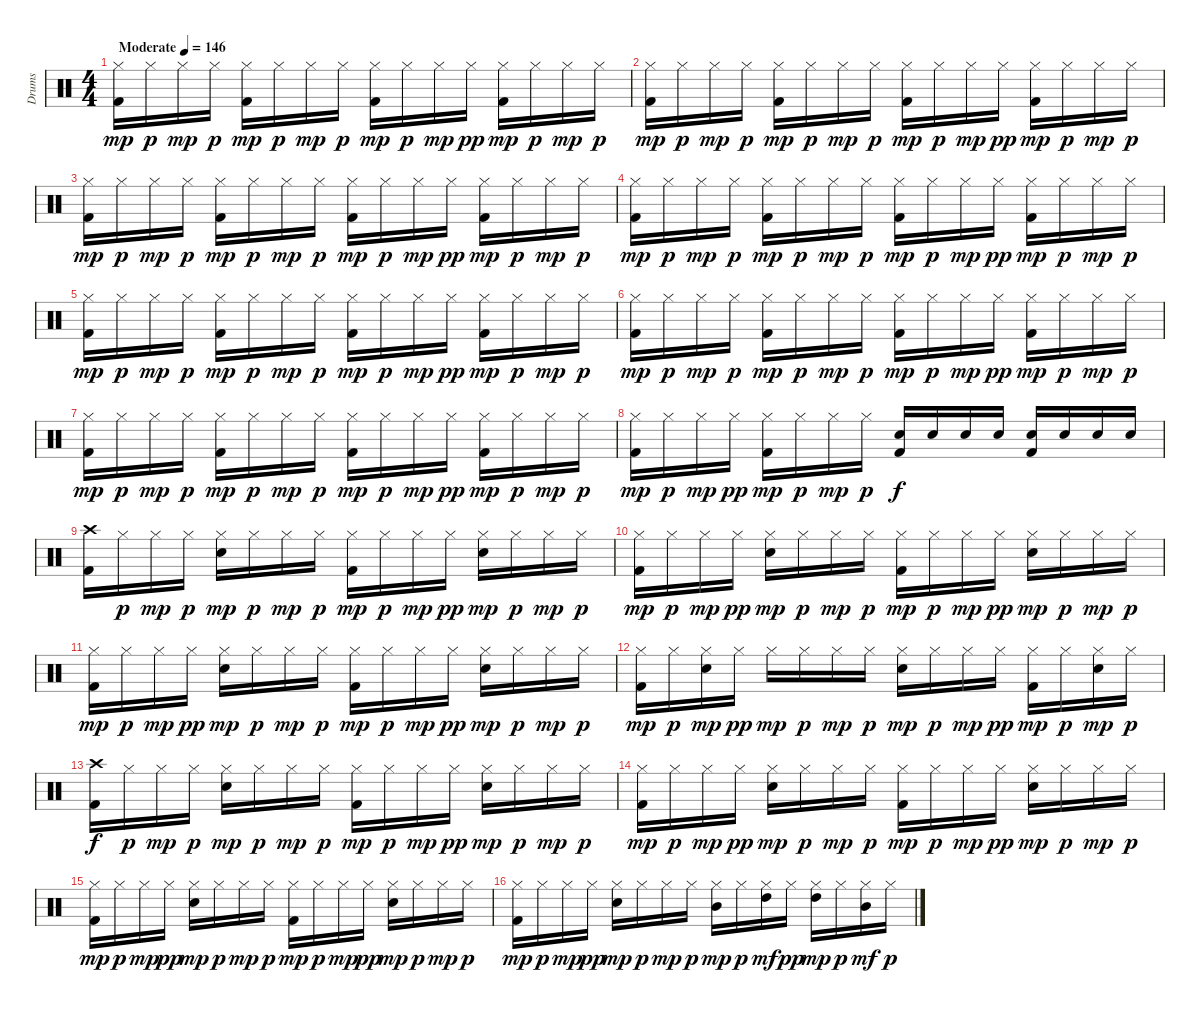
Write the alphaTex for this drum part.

\track ("Drums" "Drums") {instrument percussion}
\staff {score}
\articulation defaults
\ts (4 4)
\tempo (146 "Moderate")
\clef neutral
\ks c
("Hi-Hat (closed)" "Kick (hit) 2").16{dy mp} "Hi-Hat (closed)".16{dy p} "Hi-Hat (closed)".16{dy mp} "Hi-Hat (closed)".16{dy p} ("Hi-Hat (closed)" "Kick (hit) 2").16{dy mp} "Hi-Hat (closed)".16{dy p} "Hi-Hat (closed)".16{dy mp} "Hi-Hat (closed)".16{dy p} ("Hi-Hat (closed)" "Kick (hit) 2").16{dy mp} "Hi-Hat (closed)".16{dy p} "Hi-Hat (closed)".16{dy mp} "Hi-Hat (closed)".16{dy pp} ("Hi-Hat (closed)" "Kick (hit) 2").16{dy mp} "Hi-Hat (closed)".16{dy p} "Hi-Hat (closed)".16{dy mp} "Hi-Hat (closed)".16{dy p} |
("Hi-Hat (closed)" "Kick (hit) 2").16{dy mp} "Hi-Hat (closed)".16{dy p} "Hi-Hat (closed)".16{dy mp} "Hi-Hat (closed)".16{dy p} ("Hi-Hat (closed)" "Kick (hit) 2").16{dy mp} "Hi-Hat (closed)".16{dy p} "Hi-Hat (closed)".16{dy mp} "Hi-Hat (closed)".16{dy p} ("Hi-Hat (closed)" "Kick (hit) 2").16{dy mp} "Hi-Hat (closed)".16{dy p} "Hi-Hat (closed)".16{dy mp} "Hi-Hat (closed)".16{dy pp} ("Hi-Hat (closed)" "Kick (hit) 2").16{dy mp} "Hi-Hat (closed)".16{dy p} "Hi-Hat (closed)".16{dy mp} "Hi-Hat (closed)".16{dy p} |
("Hi-Hat (closed)" "Kick (hit) 2").16{dy mp} "Hi-Hat (closed)".16{dy p} "Hi-Hat (closed)".16{dy mp} "Hi-Hat (closed)".16{dy p} ("Hi-Hat (closed)" "Kick (hit) 2").16{dy mp} "Hi-Hat (closed)".16{dy p} "Hi-Hat (closed)".16{dy mp} "Hi-Hat (closed)".16{dy p} ("Hi-Hat (closed)" "Kick (hit) 2").16{dy mp} "Hi-Hat (closed)".16{dy p} "Hi-Hat (closed)".16{dy mp} "Hi-Hat (closed)".16{dy pp} ("Hi-Hat (closed)" "Kick (hit) 2").16{dy mp} "Hi-Hat (closed)".16{dy p} "Hi-Hat (closed)".16{dy mp} "Hi-Hat (closed)".16{dy p} |
("Hi-Hat (closed)" "Kick (hit) 2").16{dy mp} "Hi-Hat (closed)".16{dy p} "Hi-Hat (closed)".16{dy mp} "Hi-Hat (closed)".16{dy p} ("Hi-Hat (closed)" "Kick (hit) 2").16{dy mp} "Hi-Hat (closed)".16{dy p} "Hi-Hat (closed)".16{dy mp} "Hi-Hat (closed)".16{dy p} ("Hi-Hat (closed)" "Kick (hit) 2").16{dy mp} "Hi-Hat (closed)".16{dy p} "Hi-Hat (closed)".16{dy mp} "Hi-Hat (closed)".16{dy pp} ("Hi-Hat (closed)" "Kick (hit) 2").16{dy mp} "Hi-Hat (closed)".16{dy p} "Hi-Hat (closed)".16{dy mp} "Hi-Hat (closed)".16{dy p} |
("Hi-Hat (closed)" "Kick (hit) 2").16{dy mp} "Hi-Hat (closed)".16{dy p} "Hi-Hat (closed)".16{dy mp} "Hi-Hat (closed)".16{dy p} ("Hi-Hat (closed)" "Kick (hit) 2").16{dy mp} "Hi-Hat (closed)".16{dy p} "Hi-Hat (closed)".16{dy mp} "Hi-Hat (closed)".16{dy p} ("Hi-Hat (closed)" "Kick (hit) 2").16{dy mp} "Hi-Hat (closed)".16{dy p} "Hi-Hat (closed)".16{dy mp} "Hi-Hat (closed)".16{dy pp} ("Hi-Hat (closed)" "Kick (hit) 2").16{dy mp} "Hi-Hat (closed)".16{dy p} "Hi-Hat (closed)".16{dy mp} "Hi-Hat (closed)".16{dy p} |
("Hi-Hat (closed)" "Kick (hit) 2").16{dy mp} "Hi-Hat (closed)".16{dy p} "Hi-Hat (closed)".16{dy mp} "Hi-Hat (closed)".16{dy p} ("Hi-Hat (closed)" "Kick (hit) 2").16{dy mp} "Hi-Hat (closed)".16{dy p} "Hi-Hat (closed)".16{dy mp} "Hi-Hat (closed)".16{dy p} ("Hi-Hat (closed)" "Kick (hit) 2").16{dy mp} "Hi-Hat (closed)".16{dy p} "Hi-Hat (closed)".16{dy mp} "Hi-Hat (closed)".16{dy pp} ("Hi-Hat (closed)" "Kick (hit) 2").16{dy mp} "Hi-Hat (closed)".16{dy p} "Hi-Hat (closed)".16{dy mp} "Hi-Hat (closed)".16{dy p} |
("Hi-Hat (closed)" "Kick (hit) 2").16{dy mp} "Hi-Hat (closed)".16{dy p} "Hi-Hat (closed)".16{dy mp} "Hi-Hat (closed)".16{dy p} ("Hi-Hat (closed)" "Kick (hit) 2").16{dy mp} "Hi-Hat (closed)".16{dy p} "Hi-Hat (closed)".16{dy mp} "Hi-Hat (closed)".16{dy p} ("Hi-Hat (closed)" "Kick (hit) 2").16{dy mp} "Hi-Hat (closed)".16{dy p} "Hi-Hat (closed)".16{dy mp} "Hi-Hat (closed)".16{dy pp} ("Hi-Hat (closed)" "Kick (hit) 2").16{dy mp} "Hi-Hat (closed)".16{dy p} "Hi-Hat (closed)".16{dy mp} "Hi-Hat (closed)".16{dy p} |
("Hi-Hat (closed)" "Kick (hit) 2").16{dy mp} "Hi-Hat (closed)".16{dy p} "Hi-Hat (closed)".16{dy mp} "Hi-Hat (closed)".16{dy pp} ("Hi-Hat (closed)" "Kick (hit) 2").16{dy mp} "Hi-Hat (closed)".16{dy p} "Hi-Hat (closed)".16{dy mp} "Hi-Hat (closed)".16{dy p} ("Kick (hit) 2" "Electric Snare (hit)").16{dy f} "Electric Snare (hit)".16 "Electric Snare (hit)".16 "Electric Snare (hit)".16 ("Kick (hit) 2" "Electric Snare (hit)").16 "Electric Snare (hit)".16 "Electric Snare (hit)".16 "Electric Snare (hit)".16 |
("Crash high (hit)" "Kick (hit) 2").16 "Hi-Hat (closed)".16{dy p} "Hi-Hat (closed)".16{dy mp} "Hi-Hat (closed)".16{dy p} ("Hi-Hat (closed)" "Electric Snare (hit)").16{dy mp} "Hi-Hat (closed)".16{dy p} "Hi-Hat (closed)".16{dy mp} "Hi-Hat (closed)".16{dy p} ("Hi-Hat (closed)" "Kick (hit) 2").16{dy mp} "Hi-Hat (closed)".16{dy p} "Hi-Hat (closed)".16{dy mp} "Hi-Hat (closed)".16{dy pp} ("Hi-Hat (closed)" "Electric Snare (hit)").16{dy mp} "Hi-Hat (closed)".16{dy p} "Hi-Hat (closed)".16{dy mp} "Hi-Hat (closed)".16{dy p} |
("Hi-Hat (closed)" "Kick (hit) 2").16{dy mp} "Hi-Hat (closed)".16{dy p} "Hi-Hat (closed)".16{dy mp} "Hi-Hat (closed)".16{dy pp} ("Hi-Hat (closed)" "Electric Snare (hit)").16{dy mp} "Hi-Hat (closed)".16{dy p} "Hi-Hat (closed)".16{dy mp} "Hi-Hat (closed)".16{dy p} ("Hi-Hat (closed)" "Kick (hit) 2").16{dy mp} "Hi-Hat (closed)".16{dy p} "Hi-Hat (closed)".16{dy mp} "Hi-Hat (closed)".16{dy pp} ("Hi-Hat (closed)" "Electric Snare (hit)").16{dy mp} "Hi-Hat (closed)".16{dy p} "Hi-Hat (closed)".16{dy mp} "Hi-Hat (closed)".16{dy p} |
("Hi-Hat (closed)" "Kick (hit) 2").16{dy mp} "Hi-Hat (closed)".16{dy p} "Hi-Hat (closed)".16{dy mp} "Hi-Hat (closed)".16{dy pp} ("Hi-Hat (closed)" "Electric Snare (hit)").16{dy mp} "Hi-Hat (closed)".16{dy p} "Hi-Hat (closed)".16{dy mp} "Hi-Hat (closed)".16{dy p} ("Hi-Hat (closed)" "Kick (hit) 2").16{dy mp} "Hi-Hat (closed)".16{dy p} "Hi-Hat (closed)".16{dy mp} "Hi-Hat (closed)".16{dy pp} ("Hi-Hat (closed)" "Electric Snare (hit)").16{dy mp} "Hi-Hat (closed)".16{dy p} "Hi-Hat (closed)".16{dy mp} "Hi-Hat (closed)".16{dy p} |
("Hi-Hat (closed)" "Kick (hit) 2").16{dy mp} "Hi-Hat (closed)".16{dy p} ("Hi-Hat (closed)" "Electric Snare (hit)").16{dy mp} "Hi-Hat (closed)".16{dy pp} "Hi-Hat (closed)".16{dy mp} "Hi-Hat (closed)".16{dy p} "Hi-Hat (closed)".16{dy mp} "Hi-Hat (closed)".16{dy p} ("Hi-Hat (closed)" "Electric Snare (hit)").16{dy mp} "Hi-Hat (closed)".16{dy p} "Hi-Hat (closed)".16{dy mp} "Hi-Hat (closed)".16{dy pp} ("Hi-Hat (closed)" "Kick (hit) 2").16{dy mp} "Hi-Hat (closed)".16{dy p} ("Hi-Hat (closed)" "Electric Snare (hit)").16{dy mp} "Hi-Hat (closed)".16{dy p} |
("Crash high (hit)" "Kick (hit) 2").16{dy f} "Hi-Hat (closed)".16{dy p} "Hi-Hat (closed)".16{dy mp} "Hi-Hat (closed)".16{dy p} ("Hi-Hat (closed)" "Electric Snare (hit)").16{dy mp} "Hi-Hat (closed)".16{dy p} "Hi-Hat (closed)".16{dy mp} "Hi-Hat (closed)".16{dy p} ("Hi-Hat (closed)" "Kick (hit) 2").16{dy mp} "Hi-Hat (closed)".16{dy p} "Hi-Hat (closed)".16{dy mp} "Hi-Hat (closed)".16{dy pp} ("Hi-Hat (closed)" "Electric Snare (hit)").16{dy mp} "Hi-Hat (closed)".16{dy p} "Hi-Hat (closed)".16{dy mp} "Hi-Hat (closed)".16{dy p} |
("Hi-Hat (closed)" "Kick (hit) 2").16{dy mp} "Hi-Hat (closed)".16{dy p} "Hi-Hat (closed)".16{dy mp} "Hi-Hat (closed)".16{dy pp} ("Hi-Hat (closed)" "Electric Snare (hit)").16{dy mp} "Hi-Hat (closed)".16{dy p} "Hi-Hat (closed)".16{dy mp} "Hi-Hat (closed)".16{dy p} ("Hi-Hat (closed)" "Kick (hit) 2").16{dy mp} "Hi-Hat (closed)".16{dy p} "Hi-Hat (closed)".16{dy mp} "Hi-Hat (closed)".16{dy pp} ("Hi-Hat (closed)" "Electric Snare (hit)").16{dy mp} "Hi-Hat (closed)".16{dy p} "Hi-Hat (closed)".16{dy mp} "Hi-Hat (closed)".16{dy p} |
("Hi-Hat (closed)" "Kick (hit) 2").16{dy mp} "Hi-Hat (closed)".16{dy p} "Hi-Hat (closed)".16{dy mp} "Hi-Hat (closed)".16{dy pp} ("Hi-Hat (closed)" "Electric Snare (hit)").16{dy mp} "Hi-Hat (closed)".16{dy p} "Hi-Hat (closed)".16{dy mp} "Hi-Hat (closed)".16{dy p} ("Hi-Hat (closed)" "Kick (hit) 2").16{dy mp} "Hi-Hat (closed)".16{dy p} "Hi-Hat (closed)".16{dy mp} "Hi-Hat (closed)".16{dy pp} ("Hi-Hat (closed)" "Electric Snare (hit)").16{dy mp} "Hi-Hat (closed)".16{dy p} "Hi-Hat (closed)".16{dy mp} "Hi-Hat (closed)".16{dy p} |
("Hi-Hat (closed)" "Kick (hit) 2").16{dy mp} "Hi-Hat (closed)".16{dy p} "Hi-Hat (closed)".16{dy mp} "Hi-Hat (closed)".16{dy pp} ("Hi-Hat (closed)" "Electric Snare (hit)").16{dy mp} "Hi-Hat (closed)".16{dy p} "Hi-Hat (closed)".16{dy mp} "Hi-Hat (closed)".16{dy p} ("Hi-Hat (closed)" "Mid Tom (hit)").16{dy mp} "Hi-Hat (closed)".16{dy p} ("Hi-Hat (closed)" "High Tom (hit)").16{dy mf} "Hi-Hat (closed)".16{dy pp} ("Hi-Hat (closed)" "High Tom (hit)").16{dy mp} "Hi-Hat (closed)".16{dy p} ("Hi-Hat (closed)" "Mid Tom (hit)").16{dy mf} "Hi-Hat (closed)".16{dy p}
